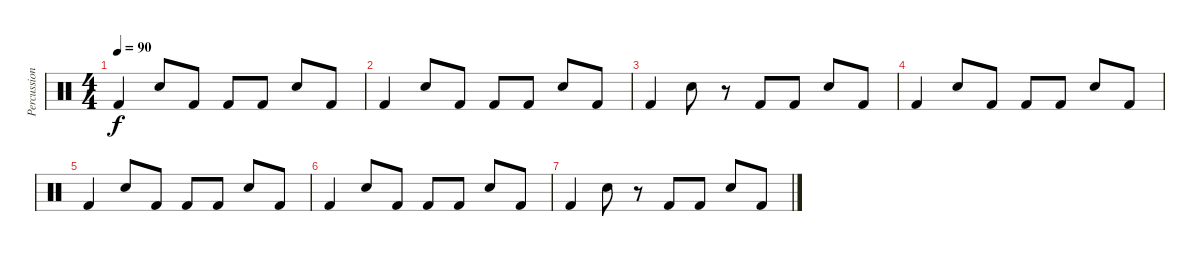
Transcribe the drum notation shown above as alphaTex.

\track ("Percussion" "Percussion") {instrument percussion}
\staff {score}
\articulation defaults
\ts (4 4)
\tempo 90
\clef neutral
\ks c "Kick (hit) 2".4{dy f} "Snare (hit) 2".8 "Kick (hit) 2".8 "Kick (hit) 2".8 "Kick (hit) 2".8 "Snare (hit) 2".8 "Kick (hit) 2".8
|
"Kick (hit) 2".4 "Snare (hit) 2".8 "Kick (hit) 2".8 "Kick (hit) 2".8 "Kick (hit) 2".8 "Snare (hit) 2".8 "Kick (hit) 2".8 |
"Kick (hit) 2".4 "Snare (hit) 2".8 r.8 "Kick (hit) 2".8 "Kick (hit) 2".8 "Snare (hit) 2".8 "Kick (hit) 2".8 |
"Kick (hit) 2".4 "Snare (hit) 2".8 "Kick (hit) 2".8 "Kick (hit) 2".8 "Kick (hit) 2".8 "Snare (hit) 2".8 "Kick (hit) 2".8 |
"Kick (hit) 2".4 "Snare (hit) 2".8 "Kick (hit) 2".8 "Kick (hit) 2".8 "Kick (hit) 2".8 "Snare (hit) 2".8 "Kick (hit) 2".8 |
"Kick (hit) 2".4 "Snare (hit) 2".8 "Kick (hit) 2".8 "Kick (hit) 2".8 "Kick (hit) 2".8 "Snare (hit) 2".8 "Kick (hit) 2".8 |
"Kick (hit) 2".4 "Snare (hit) 2".8 r.8 "Kick (hit) 2".8 "Kick (hit) 2".8 "Snare (hit) 2".8 "Kick (hit) 2".8
